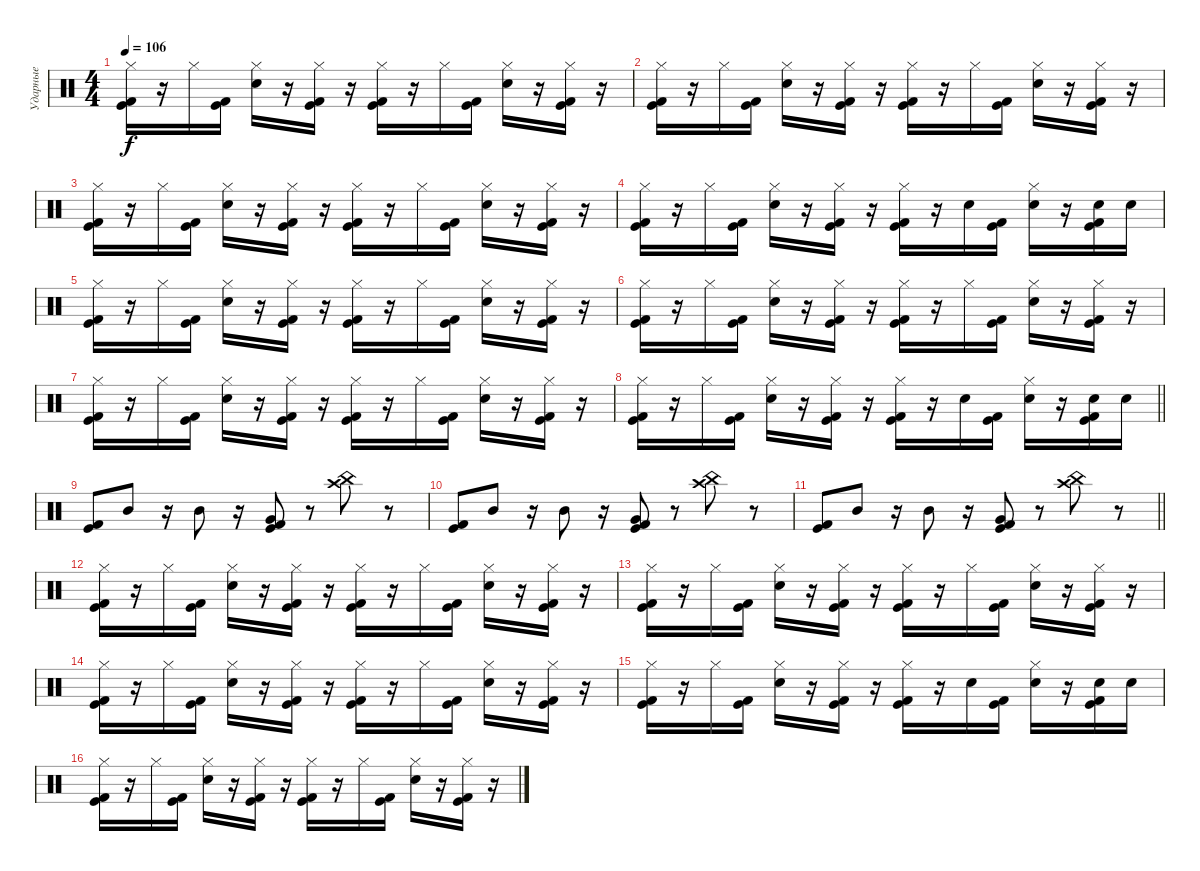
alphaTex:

\track ("Ударные" "Ударные") {instrument percussion}
\staff {score}
\articulation defaults
\ts (4 4)
\tempo 106
\clef neutral
\ks c
("Hi-Hat (closed)" "Kick (hit) 2" "Kick (hit)").16{dy f} r.16 "Hi-Hat (closed)".16 ("Kick (hit) 2" "Kick (hit)").16 ("Hi-Hat (closed)" "Electric Snare (hit)").16 r.16 ("Hi-Hat (closed)" "Kick (hit) 2" "Kick (hit)").16 r.16 ("Hi-Hat (closed)" "Kick (hit) 2" "Kick (hit)").16 r.16 "Hi-Hat (closed)".16 ("Kick (hit) 2" "Kick (hit)").16 ("Hi-Hat (closed)" "Electric Snare (hit)").16 r.16 ("Hi-Hat (closed)" "Kick (hit) 2" "Kick (hit)").16 r.16 |
("Hi-Hat (closed)" "Kick (hit) 2" "Kick (hit)").16 r.16 "Hi-Hat (closed)".16 ("Kick (hit) 2" "Kick (hit)").16 ("Hi-Hat (closed)" "Electric Snare (hit)").16 r.16 ("Hi-Hat (closed)" "Kick (hit) 2" "Kick (hit)").16 r.16 ("Hi-Hat (closed)" "Kick (hit) 2" "Kick (hit)").16 r.16 "Hi-Hat (closed)".16 ("Kick (hit) 2" "Kick (hit)").16 ("Hi-Hat (closed)" "Electric Snare (hit)").16 r.16 ("Hi-Hat (closed)" "Kick (hit) 2" "Kick (hit)").16 r.16 |
("Hi-Hat (closed)" "Kick (hit) 2" "Kick (hit)").16 r.16 "Hi-Hat (closed)".16 ("Kick (hit) 2" "Kick (hit)").16 ("Hi-Hat (closed)" "Electric Snare (hit)").16 r.16 ("Hi-Hat (closed)" "Kick (hit) 2" "Kick (hit)").16 r.16 ("Hi-Hat (closed)" "Kick (hit) 2" "Kick (hit)").16 r.16 "Hi-Hat (closed)".16 ("Kick (hit) 2" "Kick (hit)").16 ("Hi-Hat (closed)" "Electric Snare (hit)").16 r.16 ("Hi-Hat (closed)" "Kick (hit) 2" "Kick (hit)").16 r.16 |
("Hi-Hat (closed)" "Kick (hit) 2" "Kick (hit)").16 r.16 "Hi-Hat (closed)".16 ("Kick (hit) 2" "Kick (hit)").16 ("Hi-Hat (closed)" "Electric Snare (hit)").16 r.16 ("Hi-Hat (closed)" "Kick (hit) 2" "Kick (hit)").16 r.16 ("Hi-Hat (closed)" "Kick (hit) 2" "Kick (hit)").16 r.16 "Electric Snare (hit)".16 ("Kick (hit) 2" "Kick (hit)").16 ("Hi-Hat (closed)" "Electric Snare (hit)").16 r.16 ("Electric Snare (hit)" "Kick (hit) 2" "Kick (hit)").16 "Electric Snare (hit)".16 |
("Hi-Hat (closed)" "Kick (hit) 2" "Kick (hit)").16 r.16 "Hi-Hat (closed)".16 ("Kick (hit) 2" "Kick (hit)").16 ("Hi-Hat (closed)" "Electric Snare (hit)").16 r.16 ("Hi-Hat (closed)" "Kick (hit) 2" "Kick (hit)").16 r.16 ("Hi-Hat (closed)" "Kick (hit) 2" "Kick (hit)").16 r.16 "Hi-Hat (closed)".16 ("Kick (hit) 2" "Kick (hit)").16 ("Hi-Hat (closed)" "Electric Snare (hit)").16 r.16 ("Hi-Hat (closed)" "Kick (hit) 2" "Kick (hit)").16 r.16 |
("Hi-Hat (closed)" "Kick (hit) 2" "Kick (hit)").16 r.16 "Hi-Hat (closed)".16 ("Kick (hit) 2" "Kick (hit)").16 ("Hi-Hat (closed)" "Electric Snare (hit)").16 r.16 ("Hi-Hat (closed)" "Kick (hit) 2" "Kick (hit)").16 r.16 ("Hi-Hat (closed)" "Kick (hit) 2" "Kick (hit)").16 r.16 "Hi-Hat (closed)".16 ("Kick (hit) 2" "Kick (hit)").16 ("Hi-Hat (closed)" "Electric Snare (hit)").16 r.16 ("Hi-Hat (closed)" "Kick (hit) 2" "Kick (hit)").16 r.16 |
("Hi-Hat (closed)" "Kick (hit) 2" "Kick (hit)").16 r.16 "Hi-Hat (closed)".16 ("Kick (hit) 2" "Kick (hit)").16 ("Hi-Hat (closed)" "Electric Snare (hit)").16 r.16 ("Hi-Hat (closed)" "Kick (hit) 2" "Kick (hit)").16 r.16 ("Hi-Hat (closed)" "Kick (hit) 2" "Kick (hit)").16 r.16 "Hi-Hat (closed)".16 ("Kick (hit) 2" "Kick (hit)").16 ("Hi-Hat (closed)" "Electric Snare (hit)").16 r.16 ("Hi-Hat (closed)" "Kick (hit) 2" "Kick (hit)").16 r.16 |
\barLineRight lightlight
("Hi-Hat (closed)" "Kick (hit) 2" "Kick (hit)").16 r.16 "Hi-Hat (closed)".16 ("Kick (hit) 2" "Kick (hit)").16 ("Hi-Hat (closed)" "Electric Snare (hit)").16 r.16 ("Hi-Hat (closed)" "Kick (hit) 2" "Kick (hit)").16 r.16 ("Hi-Hat (closed)" "Kick (hit) 2" "Kick (hit)").16 r.16 "Electric Snare (hit)".16 ("Kick (hit) 2" "Kick (hit)").16 ("Hi-Hat (closed)" "Electric Snare (hit)").16 r.16 ("Electric Snare (hit)" "Kick (hit) 2" "Kick (hit)").16 "Electric Snare (hit)".16 |
("Kick (hit) 2" "Kick (hit)").8 "Mid Tom (hit)".8 r.16 "Mid Tom (hit)".8 r.16 ("Very Low Tom (hit)" "Kick (hit) 2" "Kick (hit)").8 r.8 ("Crash high (hit)" "China (hit)").8 r.8 |
("Kick (hit) 2" "Kick (hit)").8 "Mid Tom (hit)".8 r.16 "Mid Tom (hit)".8 r.16 ("Very Low Tom (hit)" "Kick (hit) 2" "Kick (hit)").8 r.8 ("Crash high (hit)" "China (hit)").8 r.8 |
\barLineRight lightlight
("Kick (hit) 2" "Kick (hit)").8 "Mid Tom (hit)".8 r.16 "Mid Tom (hit)".8 r.16 ("Very Low Tom (hit)" "Kick (hit) 2" "Kick (hit)").8 r.8 ("Crash high (hit)" "China (hit)").8 r.8 |
("Hi-Hat (closed)" "Kick (hit) 2" "Kick (hit)").16 r.16 "Hi-Hat (closed)".16 ("Kick (hit) 2" "Kick (hit)").16 ("Hi-Hat (closed)" "Electric Snare (hit)").16 r.16 ("Hi-Hat (closed)" "Kick (hit) 2" "Kick (hit)").16 r.16 ("Hi-Hat (closed)" "Kick (hit) 2" "Kick (hit)").16 r.16 "Hi-Hat (closed)".16 ("Kick (hit) 2" "Kick (hit)").16 ("Hi-Hat (closed)" "Electric Snare (hit)").16 r.16 ("Hi-Hat (closed)" "Kick (hit) 2" "Kick (hit)").16 r.16 |
("Hi-Hat (closed)" "Kick (hit) 2" "Kick (hit)").16 r.16 "Hi-Hat (closed)".16 ("Kick (hit) 2" "Kick (hit)").16 ("Hi-Hat (closed)" "Electric Snare (hit)").16 r.16 ("Hi-Hat (closed)" "Kick (hit) 2" "Kick (hit)").16 r.16 ("Hi-Hat (closed)" "Kick (hit) 2" "Kick (hit)").16 r.16 "Hi-Hat (closed)".16 ("Kick (hit) 2" "Kick (hit)").16 ("Hi-Hat (closed)" "Electric Snare (hit)").16 r.16 ("Hi-Hat (closed)" "Kick (hit) 2" "Kick (hit)").16 r.16 |
("Hi-Hat (closed)" "Kick (hit) 2" "Kick (hit)").16 r.16 "Hi-Hat (closed)".16 ("Kick (hit) 2" "Kick (hit)").16 ("Hi-Hat (closed)" "Electric Snare (hit)").16 r.16 ("Hi-Hat (closed)" "Kick (hit) 2" "Kick (hit)").16 r.16 ("Hi-Hat (closed)" "Kick (hit) 2" "Kick (hit)").16 r.16 "Hi-Hat (closed)".16 ("Kick (hit) 2" "Kick (hit)").16 ("Hi-Hat (closed)" "Electric Snare (hit)").16 r.16 ("Hi-Hat (closed)" "Kick (hit) 2" "Kick (hit)").16 r.16 |
("Hi-Hat (closed)" "Kick (hit) 2" "Kick (hit)").16 r.16 "Hi-Hat (closed)".16 ("Kick (hit) 2" "Kick (hit)").16 ("Hi-Hat (closed)" "Electric Snare (hit)").16 r.16 ("Hi-Hat (closed)" "Kick (hit) 2" "Kick (hit)").16 r.16 ("Hi-Hat (closed)" "Kick (hit) 2" "Kick (hit)").16 r.16 "Electric Snare (hit)".16 ("Kick (hit) 2" "Kick (hit)").16 ("Hi-Hat (closed)" "Electric Snare (hit)").16 r.16 ("Electric Snare (hit)" "Kick (hit) 2" "Kick (hit)").16 "Electric Snare (hit)".16 |
("Hi-Hat (closed)" "Kick (hit) 2" "Kick (hit)").16 r.16 "Hi-Hat (closed)".16 ("Kick (hit) 2" "Kick (hit)").16 ("Hi-Hat (closed)" "Electric Snare (hit)").16 r.16 ("Hi-Hat (closed)" "Kick (hit) 2" "Kick (hit)").16 r.16 ("Hi-Hat (closed)" "Kick (hit) 2" "Kick (hit)").16 r.16 "Hi-Hat (closed)".16 ("Kick (hit) 2" "Kick (hit)").16 ("Hi-Hat (closed)" "Electric Snare (hit)").16 r.16 ("Hi-Hat (closed)" "Kick (hit) 2" "Kick (hit)").16 r.16
